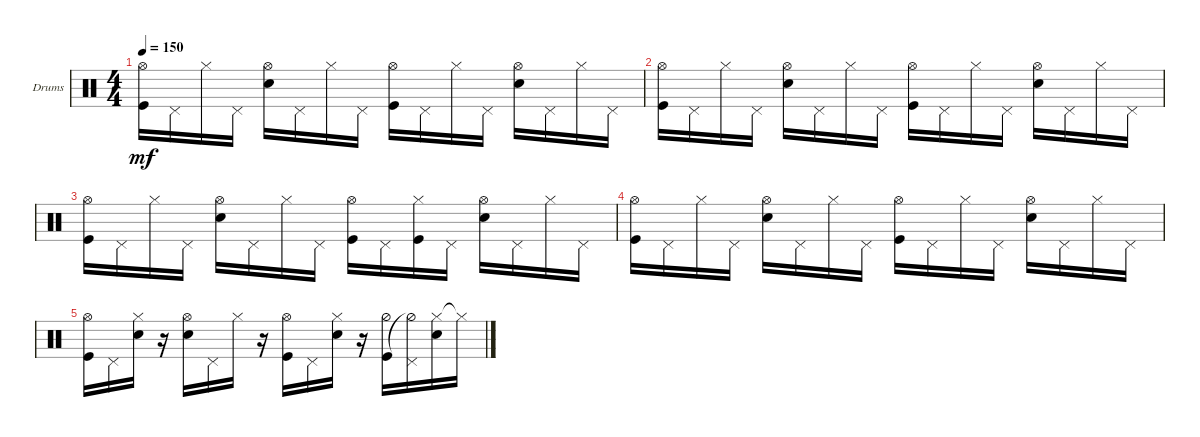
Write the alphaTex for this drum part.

\bracketExtendMode groupsimilarinstruments
\firstSystemTrackNameOrientation horizontal
\otherSystemsTrackNameOrientation horizontal
\track ("Drumkit" "Drums") {solo instrument percussion}
\staff {score}
\articulation defaults
\ts (4 4)
\tempo 150
\clef neutral
\ks c
("Kick (hit)" "Hi-Hat (open)").16{dy mf} "Pedal Hi-Hat (hit)".16 "Hi-Hat (closed)".16 "Pedal Hi-Hat (hit)".16 ("Snare (hit) 2" "Hi-Hat (open)").16 "Pedal Hi-Hat (hit)".16 "Hi-Hat (closed)".16 "Pedal Hi-Hat (hit)".16 ("Kick (hit)" "Hi-Hat (open)").16 "Pedal Hi-Hat (hit)".16 "Hi-Hat (closed)".16 "Pedal Hi-Hat (hit)".16 ("Snare (hit) 2" "Hi-Hat (open)").16 "Pedal Hi-Hat (hit)".16 "Hi-Hat (closed)".16 "Pedal Hi-Hat (hit)".16 |
("Kick (hit)" "Hi-Hat (open)").16 "Pedal Hi-Hat (hit)".16 "Hi-Hat (closed)".16 "Pedal Hi-Hat (hit)".16 ("Snare (hit) 2" "Hi-Hat (open)").16 "Pedal Hi-Hat (hit)".16 "Hi-Hat (closed)".16 "Pedal Hi-Hat (hit)".16 ("Kick (hit)" "Hi-Hat (open)").16 "Pedal Hi-Hat (hit)".16 "Hi-Hat (closed)".16 "Pedal Hi-Hat (hit)".16 ("Snare (hit) 2" "Hi-Hat (open)").16 "Pedal Hi-Hat (hit)".16 "Hi-Hat (closed)".16 "Pedal Hi-Hat (hit)".16 |
("Kick (hit)" "Hi-Hat (open)").16 "Pedal Hi-Hat (hit)".16 "Hi-Hat (closed)".16 "Pedal Hi-Hat (hit)".16 ("Snare (hit) 2" "Hi-Hat (open)").16 "Pedal Hi-Hat (hit)".16 "Hi-Hat (closed)".16 "Pedal Hi-Hat (hit)".16 ("Kick (hit)" "Hi-Hat (open)").16 "Pedal Hi-Hat (hit)".16 ("Hi-Hat (closed)" "Kick (hit)").16 "Pedal Hi-Hat (hit)".16 ("Snare (hit) 2" "Hi-Hat (open)").16 "Pedal Hi-Hat (hit)".16 "Hi-Hat (closed)".16 "Pedal Hi-Hat (hit)".16 |
("Kick (hit)" "Hi-Hat (open)").16 "Pedal Hi-Hat (hit)".16 "Hi-Hat (closed)".16 "Pedal Hi-Hat (hit)".16 ("Snare (hit) 2" "Hi-Hat (open)").16 "Pedal Hi-Hat (hit)".16 "Hi-Hat (closed)".16 "Pedal Hi-Hat (hit)".16 ("Kick (hit)" "Hi-Hat (open)").16 "Pedal Hi-Hat (hit)".16 "Hi-Hat (closed)".16 "Pedal Hi-Hat (hit)".16 ("Snare (hit) 2" "Hi-Hat (open)").16 "Pedal Hi-Hat (hit)".16 "Hi-Hat (closed)".16 "Pedal Hi-Hat (hit)".16 |
("Kick (hit)" "Hi-Hat (open)").16 "Pedal Hi-Hat (hit)".16 ("Hi-Hat (closed)" "Snare (hit) 2").16 r.16 ("Snare (hit) 2" "Hi-Hat (open)").16 "Pedal Hi-Hat (hit)".16 "Hi-Hat (closed)".16 r.16 ("Kick (hit)" "Hi-Hat (open)").16 "Pedal Hi-Hat (hit)".16 ("Hi-Hat (closed)" "Snare (hit) 2").16 r.16 ("Hi-Hat (half)" "Kick (hit)").16 ("Pedal Hi-Hat (hit)" "Hi-Hat (half)"{t}).16 ("Hi-Hat (closed)" "Snare (hit) 2").16 "Hi-Hat (closed)"{t}.16
